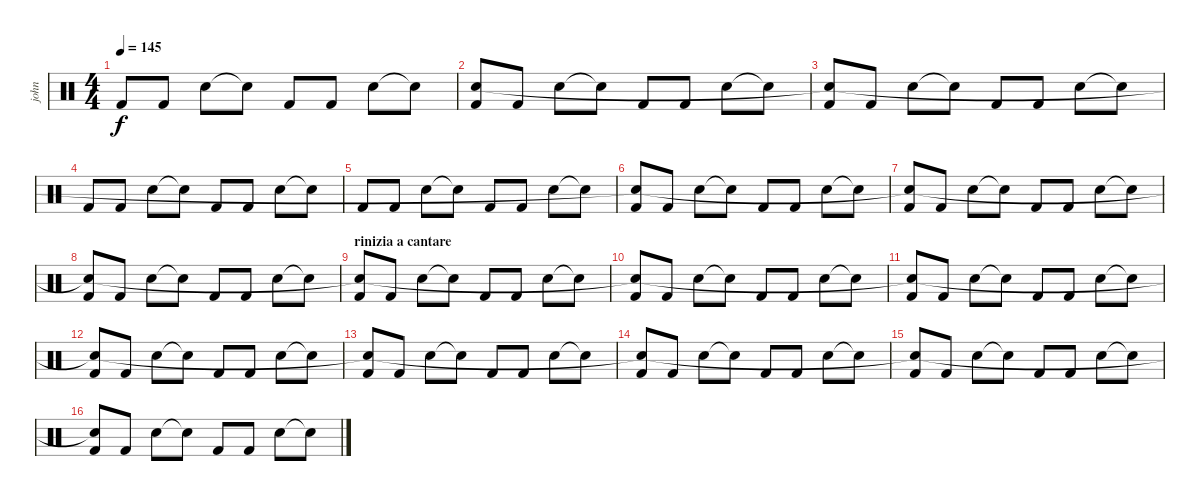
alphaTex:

\track ("john" "john") {instrument percussion}
\staff {score}
\articulation defaults
\ts (4 4)
\tempo 145
\clef neutral
\ks c "Kick (hit) 2".8{dy f} "Kick (hit) 2".8 "Snare (hit) 2".8 "Snare (hit)"{t}.8 "Kick (hit) 2".8 "Kick (hit) 2".8 "Snare (hit) 2".8 "Snare (hit)"{t}.8
|
("Kick (hit) 2" "Snare (hit)"{t}).8 "Kick (hit) 2".8 "Snare (hit) 2".8 "Snare (hit)"{t}.8 "Kick (hit) 2".8 "Kick (hit) 2".8 "Snare (hit) 2".8 "Snare (hit)"{t}.8 |
("Kick (hit) 2" "Snare (hit)"{t}).8 "Kick (hit) 2".8 "Snare (hit) 2".8 "Snare (hit)"{t}.8 "Kick (hit) 2".8 "Kick (hit) 2".8 "Snare (hit) 2".8 "Snare (hit)"{t}.8 |
"Kick (hit) 2".8 "Kick (hit) 2".8 "Snare (hit) 2".8 "Snare (hit)"{t}.8 "Kick (hit) 2".8 "Kick (hit) 2".8 "Snare (hit) 2".8 "Snare (hit)"{t}.8 |
"Kick (hit) 2".8 "Kick (hit) 2".8 "Snare (hit) 2".8 "Snare (hit)"{t}.8 "Kick (hit) 2".8 "Kick (hit) 2".8 "Snare (hit) 2".8 "Snare (hit)"{t}.8 |
("Kick (hit) 2" "Snare (hit)"{t}).8 "Kick (hit) 2".8 "Snare (hit) 2".8 "Snare (hit)"{t}.8 "Kick (hit) 2".8 "Kick (hit) 2".8 "Snare (hit) 2".8 "Snare (hit)"{t}.8 |
\section ("" "")
("Kick (hit) 2" "Snare (hit)"{t}).8 "Kick (hit) 2".8 "Snare (hit) 2".8 "Snare (hit)"{t}.8 "Kick (hit) 2".8 "Kick (hit) 2".8 "Snare (hit) 2".8 "Snare (hit)"{t}.8 |
("Kick (hit) 2" "Snare (hit)"{t}).8 "Kick (hit) 2".8 "Snare (hit) 2".8 "Snare (hit)"{t}.8 "Kick (hit) 2".8 "Kick (hit) 2".8 "Snare (hit) 2".8 "Snare (hit)"{t}.8 |
\section ("" "rinizia a cantare")
("Kick (hit) 2" "Snare (hit)"{t}).8 "Kick (hit) 2".8 "Snare (hit) 2".8 "Snare (hit)"{t}.8 "Kick (hit) 2".8 "Kick (hit) 2".8 "Snare (hit) 2".8 "Snare (hit)"{t}.8 |
("Kick (hit) 2" "Snare (hit)"{t}).8 "Kick (hit) 2".8 "Snare (hit) 2".8 "Snare (hit)"{t}.8 "Kick (hit) 2".8 "Kick (hit) 2".8 "Snare (hit) 2".8 "Snare (hit)"{t}.8 |
("Kick (hit) 2" "Snare (hit)"{t}).8 "Kick (hit) 2".8 "Snare (hit) 2".8 "Snare (hit)"{t}.8 "Kick (hit) 2".8 "Kick (hit) 2".8 "Snare (hit) 2".8 "Snare (hit)"{t}.8 |
("Kick (hit) 2" "Snare (hit)"{t}).8 "Kick (hit) 2".8 "Snare (hit) 2".8 "Snare (hit)"{t}.8 "Kick (hit) 2".8 "Kick (hit) 2".8 "Snare (hit) 2".8 "Snare (hit)"{t}.8 |
("Kick (hit) 2" "Snare (hit)"{t}).8 "Kick (hit) 2".8 "Snare (hit) 2".8 "Snare (hit)"{t}.8 "Kick (hit) 2".8 "Kick (hit) 2".8 "Snare (hit) 2".8 "Snare (hit)"{t}.8 |
("Kick (hit) 2" "Snare (hit)"{t}).8 "Kick (hit) 2".8 "Snare (hit) 2".8 "Snare (hit)"{t}.8 "Kick (hit) 2".8 "Kick (hit) 2".8 "Snare (hit) 2".8 "Snare (hit)"{t}.8 |
("Kick (hit) 2" "Snare (hit)"{t}).8 "Kick (hit) 2".8 "Snare (hit) 2".8 "Snare (hit)"{t}.8 "Kick (hit) 2".8 "Kick (hit) 2".8 "Snare (hit) 2".8 "Snare (hit)"{t}.8 |
("Kick (hit) 2" "Snare (hit)"{t}).8 "Kick (hit) 2".8 "Snare (hit) 2".8 "Snare (hit)"{t}.8 "Kick (hit) 2".8 "Kick (hit) 2".8 "Snare (hit) 2".8 "Snare (hit)"{t}.8
